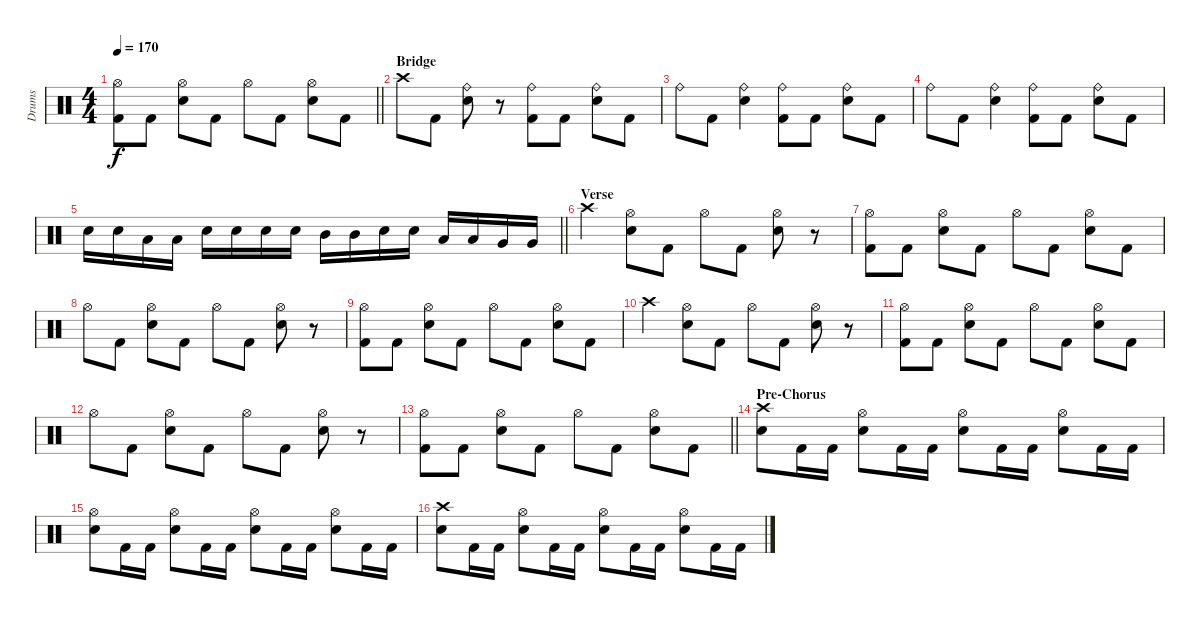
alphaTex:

\track ("Drums" "Drums") {instrument percussion}
\staff {score}
\articulation defaults
\ts (4 4)
\tempo 170
\clef neutral
\barLineRight lightlight
\ks c
("Hi-Hat (open)" "Kick (hit) 2").8{dy f} "Kick (hit) 2".8 ("Hi-Hat (open)" "Snare (hit) 2").8 "Kick (hit) 2".8 "Hi-Hat (open)".8 "Kick (hit) 2".8 ("Hi-Hat (open)" "Snare (hit) 2").8 "Kick (hit) 2".8 |
\section ("" "Bridge")
"Crash high (hit)".8 "Kick (hit) 2".8 ("Ride (bell)" "Snare (hit) 2").8 r.8 ("Ride (bell)" "Kick (hit) 2").8 "Kick (hit) 2".8 ("Ride (bell)" "Snare (hit) 2").8 "Kick (hit) 2".8 |
"Ride (bell)".8 "Kick (hit) 2".8 ("Ride (bell)" "Snare (hit) 2").4 ("Ride (bell)" "Kick (hit) 2").8 "Kick (hit) 2".8 ("Ride (bell)" "Snare (hit) 2").8 "Kick (hit) 2".8 |
"Ride (bell)".8 "Kick (hit) 2".8 ("Ride (bell)" "Snare (hit) 2").4 ("Ride (bell)" "Kick (hit) 2").8 "Kick (hit) 2".8 ("Ride (bell)" "Snare (hit) 2").8 "Kick (hit) 2".8 |
\barLineRight lightlight "Snare (hit) 2".16 "Snare (hit) 2".16 "Low Tom (hit)".16 "Low Tom (hit)".16 "Snare (hit) 2".16 "Snare (hit) 2".16 "Snare (hit) 2".16 "Snare (hit) 2".16 "Mid Tom (hit)".16 "Mid Tom (hit)".16 "Snare (hit) 2".16 "Snare (hit) 2".16 "Low Tom (hit)".16 "Low Tom (hit)".16 "Very Low Tom (hit)".16 "Very Low Tom (hit)".16
|
\section ("" "Verse")
"Crash high (hit)".4 ("Hi-Hat (open)" "Snare (hit) 2").8 "Kick (hit) 2".8 "Hi-Hat (open)".8 "Kick (hit) 2".8 ("Hi-Hat (open)" "Snare (hit) 2").8 r.8 |
("Hi-Hat (open)" "Kick (hit) 2").8 "Kick (hit) 2".8 ("Hi-Hat (open)" "Snare (hit) 2").8 "Kick (hit) 2".8 "Hi-Hat (open)".8 "Kick (hit) 2".8 ("Hi-Hat (open)" "Snare (hit) 2").8 "Kick (hit) 2".8 |
"Hi-Hat (open)".8 "Kick (hit) 2".8 ("Hi-Hat (open)" "Snare (hit) 2").8 "Kick (hit) 2".8 "Hi-Hat (open)".8 "Kick (hit) 2".8 ("Hi-Hat (open)" "Snare (hit) 2").8 r.8 |
("Hi-Hat (open)" "Kick (hit) 2").8 "Kick (hit) 2".8 ("Hi-Hat (open)" "Snare (hit) 2").8 "Kick (hit) 2".8 "Hi-Hat (open)".8 "Kick (hit) 2".8 ("Hi-Hat (open)" "Snare (hit) 2").8 "Kick (hit) 2".8 |
"Crash high (hit)".4 ("Hi-Hat (open)" "Snare (hit) 2").8 "Kick (hit) 2".8 "Hi-Hat (open)".8 "Kick (hit) 2".8 ("Hi-Hat (open)" "Snare (hit) 2").8 r.8 |
("Hi-Hat (open)" "Kick (hit) 2").8 "Kick (hit) 2".8 ("Hi-Hat (open)" "Snare (hit) 2").8 "Kick (hit) 2".8 "Hi-Hat (open)".8 "Kick (hit) 2".8 ("Hi-Hat (open)" "Snare (hit) 2").8 "Kick (hit) 2".8 |
"Hi-Hat (open)".8 "Kick (hit) 2".8 ("Hi-Hat (open)" "Snare (hit) 2").8 "Kick (hit) 2".8 "Hi-Hat (open)".8 "Kick (hit) 2".8 ("Hi-Hat (open)" "Snare (hit) 2").8 r.8 |
\barLineRight lightlight
("Hi-Hat (open)" "Kick (hit) 2").8 "Kick (hit) 2".8 ("Hi-Hat (open)" "Snare (hit) 2").8 "Kick (hit) 2".8 "Hi-Hat (open)".8 "Kick (hit) 2".8 ("Hi-Hat (open)" "Snare (hit) 2").8 "Kick (hit) 2".8 |
\section ("" "Pre-Chorus")
("Crash high (hit)" "Snare (hit) 2").8 "Kick (hit) 2".16 "Kick (hit) 2".16 ("Hi-Hat (open)" "Snare (hit) 2").8 "Kick (hit) 2".16 "Kick (hit) 2".16 ("Hi-Hat (open)" "Snare (hit) 2").8 "Kick (hit) 2".16 "Kick (hit) 2".16 ("Hi-Hat (open)" "Snare (hit) 2").8 "Kick (hit) 2".16 "Kick (hit) 2".16 |
("Hi-Hat (open)" "Snare (hit) 2").8 "Kick (hit) 2".16 "Kick (hit) 2".16 ("Hi-Hat (open)" "Snare (hit) 2").8 "Kick (hit) 2".16 "Kick (hit) 2".16 ("Hi-Hat (open)" "Snare (hit) 2").8 "Kick (hit) 2".16 "Kick (hit) 2".16 ("Hi-Hat (open)" "Snare (hit) 2").8 "Kick (hit) 2".16 "Kick (hit) 2".16 |
("Crash high (hit)" "Snare (hit) 2").8 "Kick (hit) 2".16 "Kick (hit) 2".16 ("Hi-Hat (open)" "Snare (hit) 2").8 "Kick (hit) 2".16 "Kick (hit) 2".16 ("Hi-Hat (open)" "Snare (hit) 2").8 "Kick (hit) 2".16 "Kick (hit) 2".16 ("Hi-Hat (open)" "Snare (hit) 2").8 "Kick (hit) 2".16 "Kick (hit) 2".16
